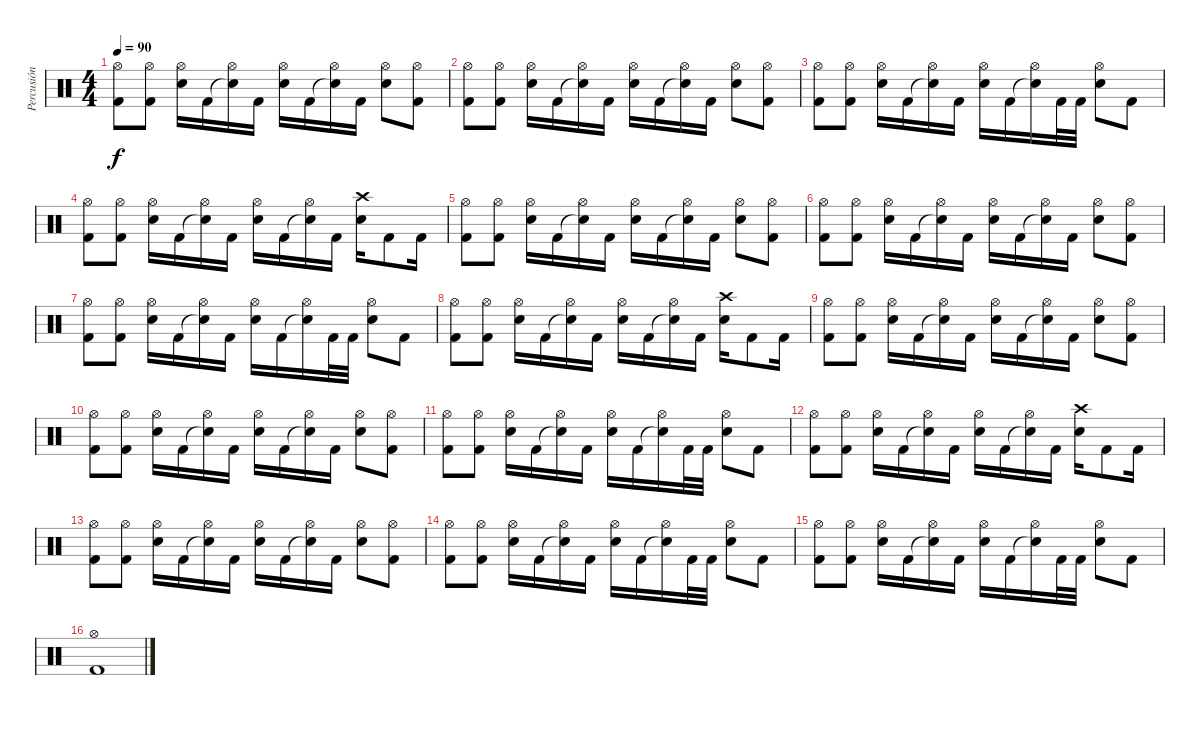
\track ("Percusión" "Percusión") {instrument percussion}
\staff
\articulation defaults
\ts (4 4)
\tempo 90
\clef neutral
\ks c
("Kick (hit) 2" "Hi-Hat (open)").8{dy f} ("Kick (hit) 2" "Hi-Hat (open)").8 ("Electric Snare (hit)" "Hi-Hat (open)").16 "Kick (hit) 2".16 ("Snare (hit)"{t} "Hi-Hat (open)").16 "Kick (hit) 2".16 ("Electric Snare (hit)" "Hi-Hat (open)").16 "Kick (hit) 2".16 ("Snare (hit)"{t} "Hi-Hat (open)").16 "Kick (hit) 2".16 ("Electric Snare (hit)" "Hi-Hat (open)").8 ("Kick (hit) 2" "Hi-Hat (open)").8 |
("Kick (hit) 2" "Hi-Hat (open)").8 ("Kick (hit) 2" "Hi-Hat (open)").8 ("Electric Snare (hit)" "Hi-Hat (open)").16 "Kick (hit) 2".16 ("Snare (hit)"{t} "Hi-Hat (open)").16 "Kick (hit) 2".16 ("Electric Snare (hit)" "Hi-Hat (open)").16 "Kick (hit) 2".16 ("Snare (hit)"{t} "Hi-Hat (open)").16 "Kick (hit) 2".16 ("Electric Snare (hit)" "Hi-Hat (open)").8 ("Kick (hit) 2" "Hi-Hat (open)").8 |
("Kick (hit) 2" "Hi-Hat (open)").8 ("Kick (hit) 2" "Hi-Hat (open)").8 ("Electric Snare (hit)" "Hi-Hat (open)").16 "Kick (hit) 2".16 ("Snare (hit)"{t} "Hi-Hat (open)").16 "Kick (hit) 2".16 ("Electric Snare (hit)" "Hi-Hat (open)").16 "Kick (hit) 2".16 ("Snare (hit)"{t} "Hi-Hat (open)").16 "Kick (hit) 2".32 "Kick (hit) 2".32 ("Electric Snare (hit)" "Hi-Hat (open)").8 "Kick (hit) 2".8 |
("Kick (hit) 2" "Hi-Hat (open)").8 ("Kick (hit) 2" "Hi-Hat (open)").8 ("Electric Snare (hit)" "Hi-Hat (open)").16 "Kick (hit) 2".16 ("Snare (hit)"{t} "Hi-Hat (open)").16 "Kick (hit) 2".16 ("Electric Snare (hit)" "Hi-Hat (open)").16 "Kick (hit) 2".16 ("Snare (hit)"{t} "Hi-Hat (open)").16 "Kick (hit) 2".16 ("Electric Snare (hit)" "Crash high (hit)").16 "Kick (hit) 2".8 "Kick (hit) 2".16 |
("Kick (hit) 2" "Hi-Hat (open)").8 ("Kick (hit) 2" "Hi-Hat (open)").8 ("Electric Snare (hit)" "Hi-Hat (open)").16 "Kick (hit) 2".16 ("Snare (hit)"{t} "Hi-Hat (open)").16 "Kick (hit) 2".16 ("Electric Snare (hit)" "Hi-Hat (open)").16 "Kick (hit) 2".16 ("Snare (hit)"{t} "Hi-Hat (open)").16 "Kick (hit) 2".16 ("Electric Snare (hit)" "Hi-Hat (open)").8 ("Kick (hit) 2" "Hi-Hat (open)").8 |
("Kick (hit) 2" "Hi-Hat (open)").8 ("Kick (hit) 2" "Hi-Hat (open)").8 ("Electric Snare (hit)" "Hi-Hat (open)").16 "Kick (hit) 2".16 ("Snare (hit)"{t} "Hi-Hat (open)").16 "Kick (hit) 2".16 ("Electric Snare (hit)" "Hi-Hat (open)").16 "Kick (hit) 2".16 ("Snare (hit)"{t} "Hi-Hat (open)").16 "Kick (hit) 2".16 ("Electric Snare (hit)" "Hi-Hat (open)").8 ("Kick (hit) 2" "Hi-Hat (open)").8 |
("Kick (hit) 2" "Hi-Hat (open)").8 ("Kick (hit) 2" "Hi-Hat (open)").8 ("Electric Snare (hit)" "Hi-Hat (open)").16 "Kick (hit) 2".16 ("Snare (hit)"{t} "Hi-Hat (open)").16 "Kick (hit) 2".16 ("Electric Snare (hit)" "Hi-Hat (open)").16 "Kick (hit) 2".16 ("Snare (hit)"{t} "Hi-Hat (open)").16 "Kick (hit) 2".32 "Kick (hit) 2".32 ("Electric Snare (hit)" "Hi-Hat (open)").8 "Kick (hit) 2".8 |
("Kick (hit) 2" "Hi-Hat (open)").8 ("Kick (hit) 2" "Hi-Hat (open)").8 ("Electric Snare (hit)" "Hi-Hat (open)").16 "Kick (hit) 2".16 ("Snare (hit)"{t} "Hi-Hat (open)").16 "Kick (hit) 2".16 ("Electric Snare (hit)" "Hi-Hat (open)").16 "Kick (hit) 2".16 ("Snare (hit)"{t} "Hi-Hat (open)").16 "Kick (hit) 2".16 ("Electric Snare (hit)" "Crash high (hit)").16 "Kick (hit) 2".8 "Kick (hit) 2".16 |
("Kick (hit) 2" "Hi-Hat (open)").8 ("Kick (hit) 2" "Hi-Hat (open)").8 ("Electric Snare (hit)" "Hi-Hat (open)").16 "Kick (hit) 2".16 ("Snare (hit)"{t} "Hi-Hat (open)").16 "Kick (hit) 2".16 ("Electric Snare (hit)" "Hi-Hat (open)").16 "Kick (hit) 2".16 ("Snare (hit)"{t} "Hi-Hat (open)").16 "Kick (hit) 2".16 ("Electric Snare (hit)" "Hi-Hat (open)").8 ("Kick (hit) 2" "Hi-Hat (open)").8 |
("Kick (hit) 2" "Hi-Hat (open)").8 ("Kick (hit) 2" "Hi-Hat (open)").8 ("Electric Snare (hit)" "Hi-Hat (open)").16 "Kick (hit) 2".16 ("Snare (hit)"{t} "Hi-Hat (open)").16 "Kick (hit) 2".16 ("Electric Snare (hit)" "Hi-Hat (open)").16 "Kick (hit) 2".16 ("Snare (hit)"{t} "Hi-Hat (open)").16 "Kick (hit) 2".16 ("Electric Snare (hit)" "Hi-Hat (open)").8 ("Kick (hit) 2" "Hi-Hat (open)").8 |
("Kick (hit) 2" "Hi-Hat (open)").8 ("Kick (hit) 2" "Hi-Hat (open)").8 ("Electric Snare (hit)" "Hi-Hat (open)").16 "Kick (hit) 2".16 ("Snare (hit)"{t} "Hi-Hat (open)").16 "Kick (hit) 2".16 ("Electric Snare (hit)" "Hi-Hat (open)").16 "Kick (hit) 2".16 ("Snare (hit)"{t} "Hi-Hat (open)").16 "Kick (hit) 2".32 "Kick (hit) 2".32 ("Electric Snare (hit)" "Hi-Hat (open)").8 "Kick (hit) 2".8 |
("Kick (hit) 2" "Hi-Hat (open)").8 ("Kick (hit) 2" "Hi-Hat (open)").8 ("Electric Snare (hit)" "Hi-Hat (open)").16 "Kick (hit) 2".16 ("Snare (hit)"{t} "Hi-Hat (open)").16 "Kick (hit) 2".16 ("Electric Snare (hit)" "Hi-Hat (open)").16 "Kick (hit) 2".16 ("Snare (hit)"{t} "Hi-Hat (open)").16 "Kick (hit) 2".16 ("Electric Snare (hit)" "Crash high (hit)").16 "Kick (hit) 2".8 "Kick (hit) 2".16 |
("Kick (hit) 2" "Hi-Hat (open)").8 ("Kick (hit) 2" "Hi-Hat (open)").8 ("Electric Snare (hit)" "Hi-Hat (open)").16 "Kick (hit) 2".16 ("Snare (hit)"{t} "Hi-Hat (open)").16 "Kick (hit) 2".16 ("Electric Snare (hit)" "Hi-Hat (open)").16 "Kick (hit) 2".16 ("Snare (hit)"{t} "Hi-Hat (open)").16 "Kick (hit) 2".16 ("Electric Snare (hit)" "Hi-Hat (open)").8 ("Kick (hit) 2" "Hi-Hat (open)").8 |
("Kick (hit) 2" "Hi-Hat (open)").8 ("Kick (hit) 2" "Hi-Hat (open)").8 ("Electric Snare (hit)" "Hi-Hat (open)").16 "Kick (hit) 2".16 ("Snare (hit)"{t} "Hi-Hat (open)").16 "Kick (hit) 2".16 ("Electric Snare (hit)" "Hi-Hat (open)").16 "Kick (hit) 2".16 ("Snare (hit)"{t} "Hi-Hat (open)").16 "Kick (hit) 2".32 "Kick (hit) 2".32 ("Electric Snare (hit)" "Hi-Hat (open)").8 "Kick (hit) 2".8 |
("Kick (hit) 2" "Hi-Hat (open)").8 ("Kick (hit) 2" "Hi-Hat (open)").8 ("Electric Snare (hit)" "Hi-Hat (open)").16 "Kick (hit) 2".16 ("Snare (hit)"{t} "Hi-Hat (open)").16 "Kick (hit) 2".16 ("Electric Snare (hit)" "Hi-Hat (open)").16 "Kick (hit) 2".16 ("Snare (hit)"{t} "Hi-Hat (open)").16 "Kick (hit) 2".32 "Kick (hit) 2".32 ("Electric Snare (hit)" "Hi-Hat (open)").8 "Kick (hit) 2".8 |
("Kick (hit) 2" "Hi-Hat (open)").1
